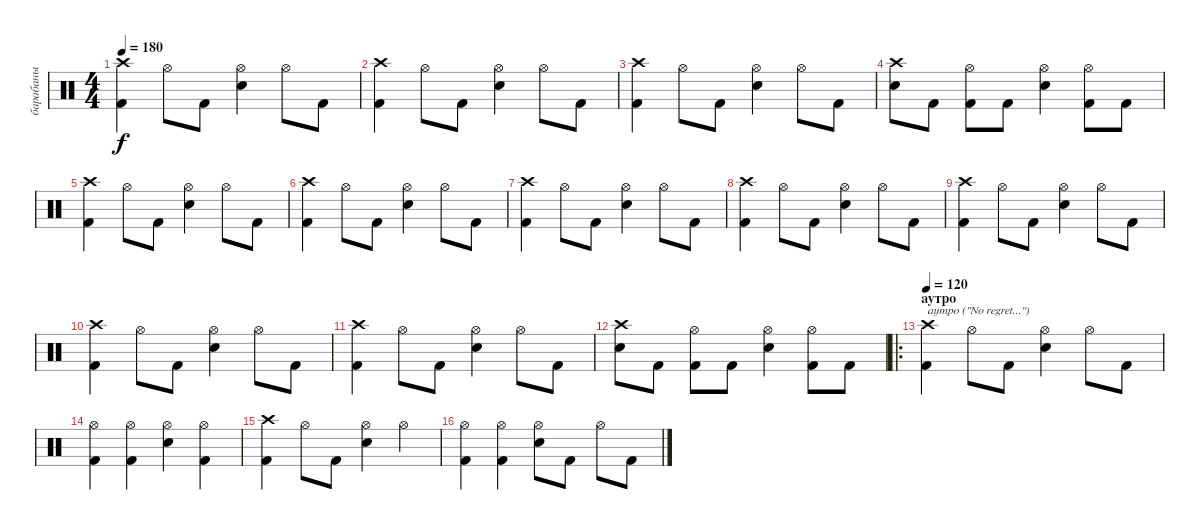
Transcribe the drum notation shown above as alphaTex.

\track ("барабаны" "барабаны") {instrument percussion}
\staff {score}
\articulation defaults
\ts (4 4)
\tempo 180
\clef neutral
\ks c
("Crash high (hit)" "Kick (hit) 2").4{dy f} "Hi-Hat (open)".8 "Kick (hit) 2".8 ("Hi-Hat (open)" "Snare (hit) 2").4 "Hi-Hat (open)".8 "Kick (hit) 2".8 |
("Crash high (hit)" "Kick (hit) 2").4 "Hi-Hat (open)".8 "Kick (hit) 2".8 ("Hi-Hat (open)" "Snare (hit) 2").4 "Hi-Hat (open)".8 "Kick (hit) 2".8 |
("Crash high (hit)" "Kick (hit) 2").4 "Hi-Hat (open)".8 "Kick (hit) 2".8 ("Hi-Hat (open)" "Snare (hit) 2").4 "Hi-Hat (open)".8 "Kick (hit) 2".8 |
("Crash high (hit)" "Snare (hit) 2").8 "Kick (hit) 2".8 ("Hi-Hat (open)" "Kick (hit) 2").8 "Kick (hit) 2".8 ("Hi-Hat (open)" "Snare (hit) 2").4 ("Hi-Hat (open)" "Kick (hit) 2").8 "Kick (hit) 2".8 |
("Crash high (hit)" "Kick (hit) 2").4 "Hi-Hat (open)".8 "Kick (hit) 2".8 ("Hi-Hat (open)" "Snare (hit) 2").4 "Hi-Hat (open)".8 "Kick (hit) 2".8 |
("Crash high (hit)" "Kick (hit) 2").4 "Hi-Hat (open)".8 "Kick (hit) 2".8 ("Hi-Hat (open)" "Snare (hit) 2").4 "Hi-Hat (open)".8 "Kick (hit) 2".8 |
("Crash high (hit)" "Kick (hit) 2").4 "Hi-Hat (open)".8 "Kick (hit) 2".8 ("Hi-Hat (open)" "Snare (hit) 2").4 "Hi-Hat (open)".8 "Kick (hit) 2".8 |
("Crash high (hit)" "Kick (hit) 2").4 "Hi-Hat (open)".8 "Kick (hit) 2".8 ("Hi-Hat (open)" "Snare (hit) 2").4 "Hi-Hat (open)".8 "Kick (hit) 2".8 |
("Crash high (hit)" "Kick (hit) 2").4 "Hi-Hat (open)".8 "Kick (hit) 2".8 ("Hi-Hat (open)" "Snare (hit) 2").4 "Hi-Hat (open)".8 "Kick (hit) 2".8 |
("Crash high (hit)" "Kick (hit) 2").4 "Hi-Hat (open)".8 "Kick (hit) 2".8 ("Hi-Hat (open)" "Snare (hit) 2").4 "Hi-Hat (open)".8 "Kick (hit) 2".8 |
("Crash high (hit)" "Kick (hit) 2").4 "Hi-Hat (open)".8 "Kick (hit) 2".8 ("Hi-Hat (open)" "Snare (hit) 2").4 "Hi-Hat (open)".8 "Kick (hit) 2".8 |
("Crash high (hit)" "Snare (hit) 2").8 "Kick (hit) 2".8 ("Hi-Hat (open)" "Kick (hit) 2").8 "Kick (hit) 2".8 ("Hi-Hat (open)" "Snare (hit) 2").4 ("Hi-Hat (open)" "Kick (hit) 2").8 "Kick (hit) 2".8 |
\ro
\section ("" "аутро")
\tempo 120
("Crash high (hit)" "Kick (hit) 2").4{txt "аутро (\"No regret...\")"} "Hi-Hat (open)".8 "Kick (hit) 2".8 ("Hi-Hat (open)" "Snare (hit) 2").4 "Hi-Hat (open)".8 "Kick (hit) 2".8 |
("Hi-Hat (open)" "Kick (hit) 2").4 ("Hi-Hat (open)" "Kick (hit) 2").4 ("Hi-Hat (open)" "Snare (hit) 2").4 ("Hi-Hat (open)" "Kick (hit) 2").4 |
("Crash high (hit)" "Kick (hit) 2").4 "Hi-Hat (open)".8 "Kick (hit) 2".8 ("Hi-Hat (open)" "Snare (hit) 2").4 "Hi-Hat (open)".4 |
("Hi-Hat (open)" "Kick (hit) 2").4 ("Hi-Hat (open)" "Kick (hit) 2").4 ("Hi-Hat (open)" "Snare (hit) 2").8 "Kick (hit) 2".8 "Hi-Hat (open)".8 "Kick (hit) 2".8
